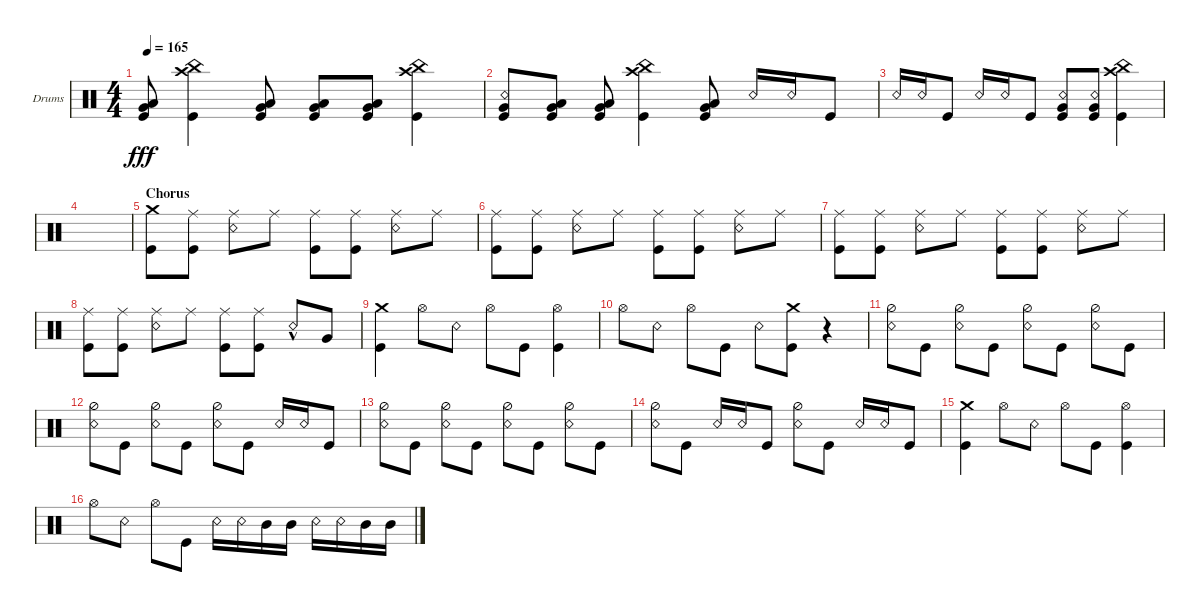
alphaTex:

\defaultSystemsLayout 4
\bracketExtendMode groupsimilarinstruments
\firstSystemTrackNameOrientation horizontal
\otherSystemsTrackNameOrientation horizontal
\track ("Drums" "Drums") {instrument percussion}
\staff {score}
\articulation defaults
\ts (4 4)
\tempo 165
\clef neutral
\ks c
("Kick (hit)" "Very Low Tom (hit)" "Low Tom (hit)").8{dy fff} ("Kick (hit)" "China (hit)" "Crash high (hit)").4 ("Kick (hit)" "Very Low Tom (hit)" "Low Tom (hit)").8 ("Kick (hit)" "Very Low Tom (hit)" "Low Tom (hit)").8 ("Kick (hit)" "Very Low Tom (hit)" "Low Tom (hit)").8 ("Kick (hit)" "China (hit)" "Crash high (hit)").4 |
("Kick (hit)" "Very Low Tom (hit)" "Snare (rim shot)").8 ("Kick (hit)" "Very Low Tom (hit)" "Low Tom (hit)").8 ("Kick (hit)" "Low Tom (hit)" "Very Low Tom (hit)").8 ("Kick (hit)" "China (hit)" "Crash high (hit)").4 ("Kick (hit)" "Very Low Tom (hit)" "Low Tom (hit)").8 "Snare (rim shot)".16 "Snare (rim shot)".16 "Kick (hit)".8 |
"Snare (rim shot)".16 "Snare (rim shot)".16 "Kick (hit)".8 "Snare (rim shot)".16 "Snare (rim shot)".16 "Kick (hit)".8 ("Snare (rim shot)" "Very Low Tom (hit)" "Kick (hit)").8 ("Snare (rim shot)" "Very Low Tom (hit)" "Kick (hit)").8 ("Kick (hit)" "Crash high (hit)" "China (hit)").4 |
|
\section ("" "Chorus")
("Crash medium (hit)" "Kick (hit)").8 ("Ride (middle)" "Kick (hit)").8 ("Ride (middle)" "Snare (rim shot)").8 "Ride (middle)".8 ("Ride (middle)" "Kick (hit)").8 ("Ride (middle)" "Kick (hit)").8 ("Ride (middle)" "Snare (rim shot)").8 "Ride (middle)".8 |
("Ride (middle)" "Kick (hit)").8 ("Ride (middle)" "Kick (hit)").8 ("Ride (middle)" "Snare (rim shot)").8 "Ride (middle)".8 ("Ride (middle)" "Kick (hit)").8 ("Ride (middle)" "Kick (hit)").8 ("Ride (middle)" "Snare (rim shot)").8 "Ride (middle)".8 |
("Ride (middle)" "Kick (hit)").8 ("Ride (middle)" "Kick (hit)").8 ("Ride (middle)" "Snare (rim shot)").8 "Ride (middle)".8 ("Ride (middle)" "Kick (hit)").8 ("Ride (middle)" "Kick (hit)").8 ("Ride (middle)" "Snare (rim shot)").8 "Ride (middle)".8 |
("Ride (middle)" "Kick (hit)").8 ("Ride (middle)" "Kick (hit)").8 ("Ride (middle)" "Snare (rim shot)").8 "Ride (middle)".8 ("Ride (middle)" "Kick (hit)").8 ("Ride (middle)" "Kick (hit)").8 "Snare (rim shot)"{hac}.8 "Very Low Tom (hit)".8 |
("Kick (hit)" "Crash medium (hit)").4 "Hi-Hat (open)".8 "Snare (rim shot)".8 "Hi-Hat (open)".8 "Kick (hit)".8 ("Kick (hit)" "Hi-Hat (open)").4 |
"Hi-Hat (open)".8 "Snare (rim shot)".8 "Hi-Hat (open)".8 "Kick (hit)".8 "Snare (rim shot)".8 ("Crash medium (hit)" "Kick (hit)").8 r.4 |
("Hi-Hat (half)" "Snare (rim shot)").8 "Kick (hit)".8 ("Hi-Hat (half)" "Snare (rim shot)").8 "Kick (hit)".8 ("Hi-Hat (half)" "Snare (rim shot)").8 "Kick (hit)".8 ("Hi-Hat (half)" "Snare (rim shot)").8 "Kick (hit)".8 |
("Hi-Hat (half)" "Snare (rim shot)").8 "Kick (hit)".8 ("Hi-Hat (half)" "Snare (rim shot)").8 "Kick (hit)".8 ("Hi-Hat (half)" "Snare (rim shot)").8 "Kick (hit)".8 "Snare (rim shot)".16 "Snare (rim shot)".16 "Kick (hit)".8 |
("Hi-Hat (half)" "Snare (rim shot)").8 "Kick (hit)".8 ("Hi-Hat (half)" "Snare (rim shot)").8 "Kick (hit)".8 ("Hi-Hat (half)" "Snare (rim shot)").8 "Kick (hit)".8 ("Hi-Hat (half)" "Snare (rim shot)").8 "Kick (hit)".8 |
("Hi-Hat (half)" "Snare (rim shot)").8 "Kick (hit)".8 "Snare (rim shot)".16 "Snare (rim shot)".16 "Kick (hit)".8 ("Hi-Hat (half)" "Snare (rim shot)").8 "Kick (hit)".8 "Snare (rim shot)".16 "Snare (rim shot)".16 "Kick (hit)".8 |
("Kick (hit)" "Crash medium (hit)").4 "Hi-Hat (open)".8 "Snare (rim shot)".8 "Hi-Hat (open)".8 "Kick (hit)".8 ("Kick (hit)" "Hi-Hat (open)").4 |
"Hi-Hat (open)".8 "Snare (rim shot)".8 "Hi-Hat (open)".8 "Kick (hit)".8 "Snare (rim shot)".16 "Snare (rim shot)".16 "Mid Tom (hit)".16 "Mid Tom (hit)".16 "Snare (rim shot)".16 "Snare (rim shot)".16 "Mid Tom (hit)".16 "Mid Tom (hit)".16
